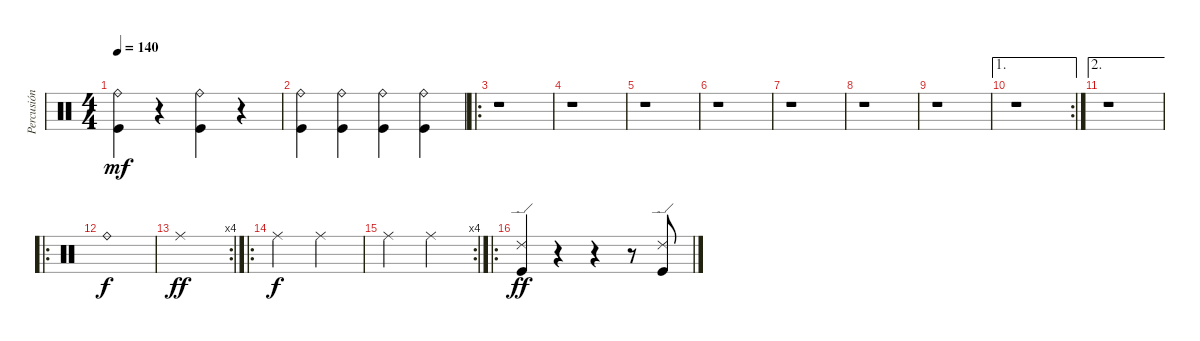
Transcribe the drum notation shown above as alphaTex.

\track ("Percusión" "Percusión") {instrument percussion}
\staff {score}
\articulation defaults
\ts (4 4)
\tempo 140
\clef neutral
\ks c
("Ride (bell)" "Kick (hit)").4{dy mf} r.4 ("Ride (bell)" "Kick (hit)").4 r.4 |
("Ride (bell)" "Kick (hit)").4 ("Ride (bell)" "Kick (hit)").4 ("Ride (bell)" "Kick (hit)").4 ("Ride (bell)" "Kick (hit)").4 |
\ro
r.1 |
r.1 |
r.1 |
r.1 |
r.1 |
r.1 |
r.1 |
\ae 1
\rc 2
r.1 |
\ae 2
r.1 |
\ro "Ride (bell)".1{dy f}
|
\rc 4 "Ride (middle)".1{dy ff}
|
\ro "Ride (middle)".2{dy f} "Ride (middle)".2
|
\rc 4 "Ride (middle)".2 "Ride (middle)".2
|
\ro
("Ride (edge) 2" "Kick (hit)").4{dy ff} r.4 r.4 r.8 ("Ride (edge) 2" "Kick (hit)").8
